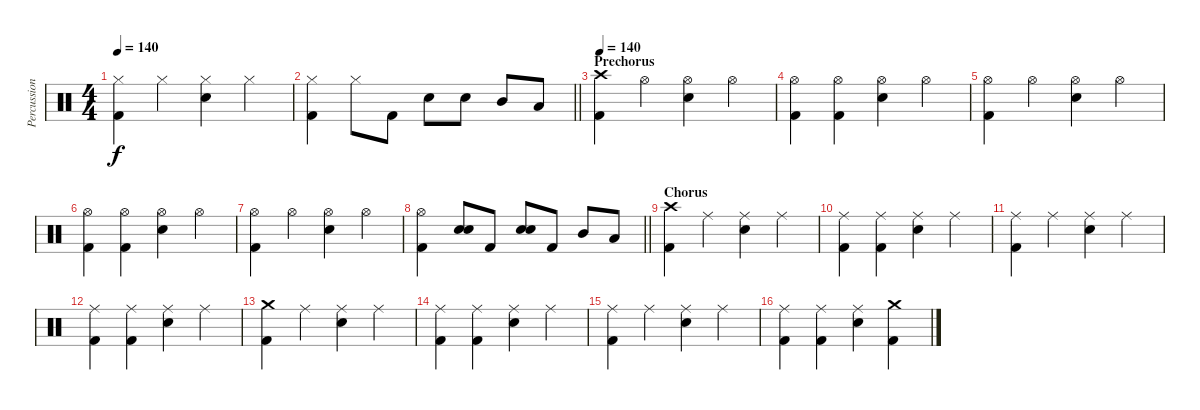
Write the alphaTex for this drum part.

\track ("Percussion" "Percussion") {instrument percussion}
\staff {score}
\articulation defaults
\ts (4 4)
\tempo 140
\clef neutral
\ks c
("Kick (hit) 2" "Hi-Hat (closed)").4{dy f} "Hi-Hat (closed)".4 ("Snare (hit) 2" "Hi-Hat (closed)").4 "Hi-Hat (closed)".4 |
\barLineRight lightlight
("Kick (hit) 2" "Hi-Hat (closed)").4 "Hi-Hat (closed)".8 "Kick (hit) 2".8 "Snare (hit) 2".8 "Snare (hit) 2".8 "Mid Tom (hit)".8 "Low Tom (hit)".8 |
\section ("" "Prechorus")
\tempo 140
("Kick (hit) 2" "Crash high (hit)").4 "Hi-Hat (open)".4 ("Snare (hit) 2" "Hi-Hat (open)").4 "Hi-Hat (open)".4 |
("Kick (hit) 2" "Hi-Hat (open)").4 ("Kick (hit) 2" "Hi-Hat (open)").4 ("Snare (hit) 2" "Hi-Hat (open)").4 "Hi-Hat (open)".4 |
("Kick (hit) 2" "Hi-Hat (open)").4 "Hi-Hat (open)".4 ("Snare (hit) 2" "Hi-Hat (open)").4 "Hi-Hat (open)".4 |
("Kick (hit) 2" "Hi-Hat (open)").4 ("Kick (hit) 2" "Hi-Hat (open)").4 ("Snare (hit) 2" "Hi-Hat (open)").4 "Hi-Hat (open)".4 |
("Kick (hit) 2" "Hi-Hat (open)").4 "Hi-Hat (open)".4 ("Snare (hit) 2" "Hi-Hat (open)").4 "Hi-Hat (open)".4 |
\barLineRight lightlight
("Kick (hit) 2" "Hi-Hat (open)").4 ("Snare (hit) 2" "Snare (hit) 2").8 "Kick (hit) 2".8 ("Snare (hit) 2" "Snare (hit) 2").8 "Kick (hit) 2".8 "Mid Tom (hit)".8 "Low Tom (hit)".8 |
\section ("" "Chorus")
("Kick (hit) 2" "Crash high (hit)").4 "Ride (middle)".4 ("Snare (hit) 2" "Ride (middle)").4 "Ride (middle)".4 |
("Kick (hit) 2" "Ride (middle)").4 ("Kick (hit) 2" "Ride (middle)").4 ("Snare (hit) 2" "Ride (middle)").4 "Ride (middle)".4 |
("Kick (hit) 2" "Ride (middle)").4 "Ride (middle)".4 ("Snare (hit) 2" "Ride (middle)").4 "Ride (middle)".4 |
("Kick (hit) 2" "Ride (middle)").4 ("Kick (hit) 2" "Ride (middle)").4 ("Snare (hit) 2" "Ride (middle)").4 "Ride (middle)".4 |
("Kick (hit) 2" "Crash medium (hit)").4 "Ride (middle)".4 ("Snare (hit) 2" "Ride (middle)").4 "Ride (middle)".4 |
("Kick (hit) 2" "Ride (middle)").4 ("Kick (hit) 2" "Ride (middle)").4 ("Snare (hit) 2" "Ride (middle)").4 "Ride (middle)".4 |
("Kick (hit) 2" "Ride (middle)").4 "Ride (middle)".4 ("Snare (hit) 2" "Ride (middle)").4 "Ride (middle)".4 |
("Kick (hit) 2" "Ride (middle)").4 ("Kick (hit) 2" "Ride (middle)").4 ("Snare (hit) 2" "Ride (middle)").4 ("Kick (hit) 2" "Crash medium (hit)").4
